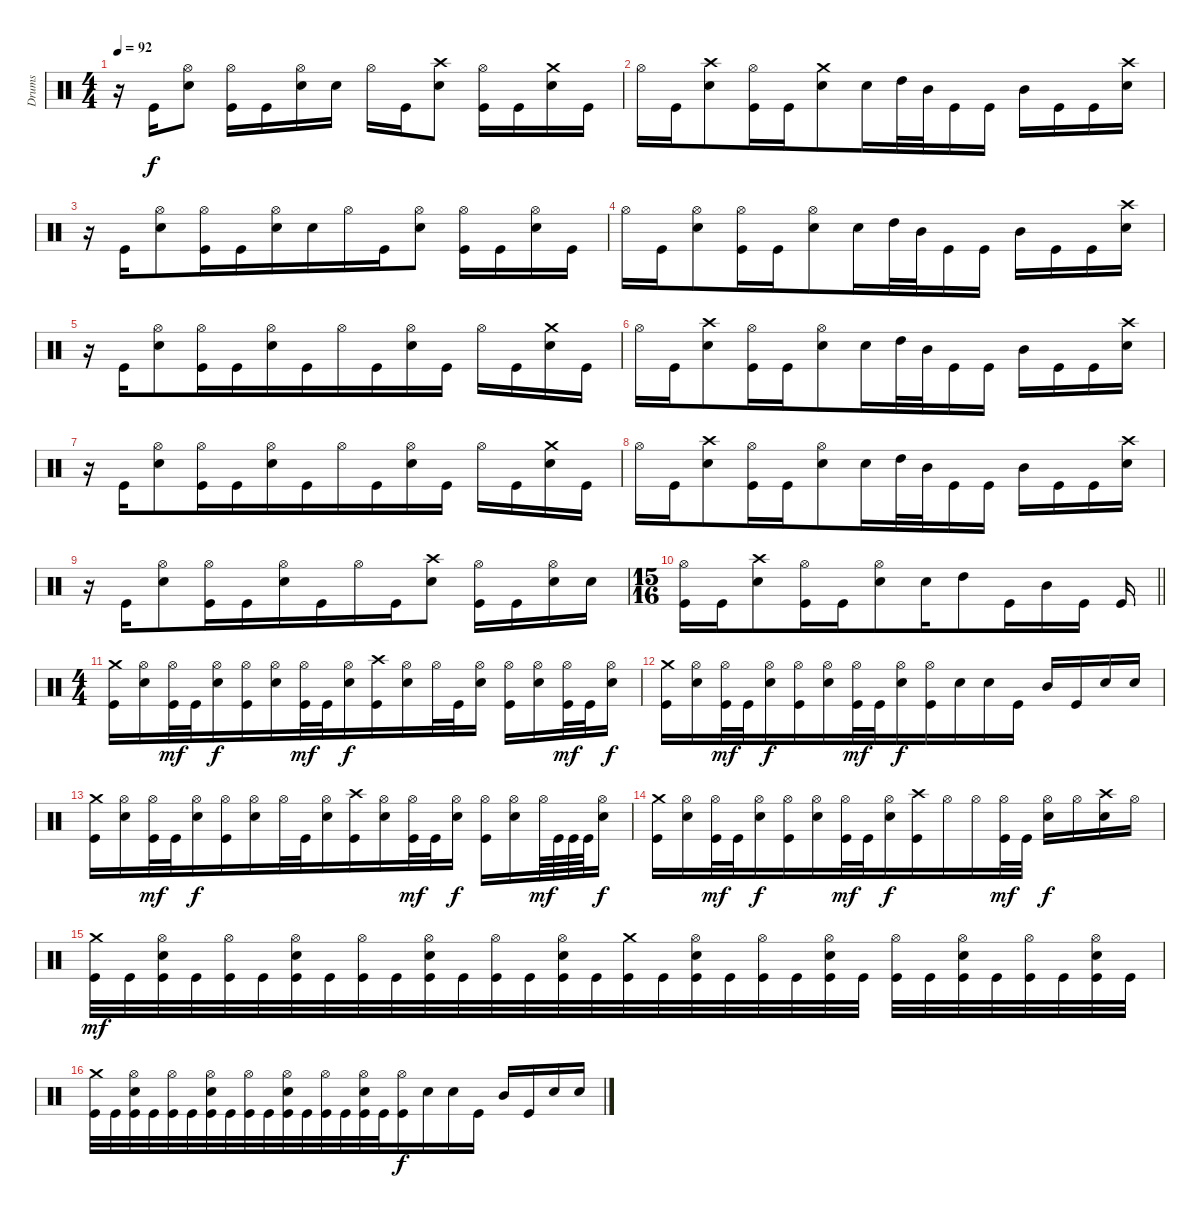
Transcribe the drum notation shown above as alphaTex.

\track ("Drums" "Drums") {instrument percussion}
\staff {score}
\articulation defaults
\ts (4 4)
\tempo 92
\clef neutral
\ks c
r.16{dy f} "Kick (hit)".16 ("Hi-Hat (open)" "Snare (hit) 2").8 ("Hi-Hat (open)" "Kick (hit)").16 "Kick (hit)".16 ("Hi-Hat (open)" "Snare (hit) 2").16 "Snare (hit) 2".16 "Hi-Hat (open)".16 "Kick (hit)".16 ("Crash high (hit)" "Snare (hit) 2").8 ("Hi-Hat (open)" "Kick (hit)").16 "Kick (hit)".16 ("Crash medium (hit)" "Snare (hit) 2").16 "Kick (hit)".16 |
\beaming (8 6 4)
"Hi-Hat (open)".16 "Kick (hit)".16 ("Crash high (hit)" "Snare (hit) 2").8 ("Hi-Hat (open)" "Kick (hit)").16 "Kick (hit)".16 ("Crash medium (hit)" "Snare (hit) 2").8 "Snare (hit) 2".16 "High Tom (hit)".32 "Mid Tom (hit)".32 "Kick (hit)".16 "Kick (hit)".16 "Mid Tom (hit)".16 "Kick (hit)".16 "Kick (hit)".16 ("Crash high (hit)" "Snare (hit) 2").16 |
r.16 "Kick (hit)".16 ("Hi-Hat (open)" "Snare (hit) 2").8 ("Hi-Hat (open)" "Kick (hit)").16 "Kick (hit)".16 ("Hi-Hat (open)" "Snare (hit) 2").16 "Snare (hit) 2".16 "Hi-Hat (open)".16 "Kick (hit)".16 ("Hi-Hat (open)" "Snare (hit) 2").8 ("Hi-Hat (open)" "Kick (hit)").16 "Kick (hit)".16 ("Hi-Hat (open)" "Snare (hit) 2").16 "Kick (hit)".16 |
"Hi-Hat (open)".16 "Kick (hit)".16 ("Hi-Hat (open)" "Snare (hit) 2").8 ("Hi-Hat (open)" "Kick (hit)").16 "Kick (hit)".16 ("Hi-Hat (open)" "Snare (hit) 2").8 "Snare (hit) 2".16 "High Tom (hit)".32 "Mid Tom (hit)".32 "Kick (hit)".16 "Kick (hit)".16 "Mid Tom (hit)".16 "Kick (hit)".16 "Kick (hit)".16 ("Crash high (hit)" "Snare (hit) 2").16 |
r.16 "Kick (hit)".16 ("Hi-Hat (open)" "Snare (hit) 2").8 ("Hi-Hat (open)" "Kick (hit)").16 "Kick (hit)".16 ("Hi-Hat (open)" "Snare (hit) 2").16 "Kick (hit)".16 "Hi-Hat (open)".16 "Kick (hit)".16 ("Hi-Hat (open)" "Snare (hit) 2").16 "Kick (hit)".16 "Hi-Hat (open)".16 "Kick (hit)".16 ("Crash medium (hit)" "Snare (hit) 2").16 "Kick (hit)".16 |
"Hi-Hat (open)".16 "Kick (hit)".16 ("Crash high (hit)" "Snare (hit) 2").8 ("Hi-Hat (open)" "Kick (hit)").16 "Kick (hit)".16 ("Hi-Hat (open)" "Snare (hit) 2").8 "Snare (hit) 2".16 "High Tom (hit)".32 "Mid Tom (hit)".32 "Kick (hit)".16 "Kick (hit)".16 "Mid Tom (hit)".16 "Kick (hit)".16 "Kick (hit)".16 ("Crash high (hit)" "Snare (hit) 2").16 |
r.16 "Kick (hit)".16 ("Hi-Hat (open)" "Snare (hit) 2").8 ("Hi-Hat (open)" "Kick (hit)").16 "Kick (hit)".16 ("Hi-Hat (open)" "Snare (hit) 2").16 "Kick (hit)".16 "Hi-Hat (open)".16 "Kick (hit)".16 ("Hi-Hat (open)" "Snare (hit) 2").16 "Kick (hit)".16 "Hi-Hat (open)".16 "Kick (hit)".16 ("Crash medium (hit)" "Snare (hit) 2").16 "Kick (hit)".16 |
"Hi-Hat (open)".16 "Kick (hit)".16 ("Crash high (hit)" "Snare (hit) 2").8 ("Hi-Hat (open)" "Kick (hit)").16 "Kick (hit)".16 ("Hi-Hat (open)" "Snare (hit) 2").8 "Snare (hit) 2".16 "High Tom (hit)".32 "Mid Tom (hit)".32 "Kick (hit)".16 "Kick (hit)".16 "Mid Tom (hit)".16 "Kick (hit)".16 "Kick (hit)".16 ("Crash high (hit)" "Snare (hit) 2").16 |
r.16 "Kick (hit)".16 ("Hi-Hat (open)" "Snare (hit) 2").8 ("Hi-Hat (open)" "Kick (hit)").16 "Kick (hit)".16 ("Hi-Hat (open)" "Snare (hit) 2").16 "Kick (hit)".16 "Hi-Hat (open)".16 "Kick (hit)".16 ("Crash high (hit)" "Snare (hit) 2").8 ("Hi-Hat (open)" "Kick (hit)").16 "Kick (hit)".16 ("Hi-Hat (open)" "Snare (hit) 2").16 "Snare (hit) 2".16 |
\ts (15 16)
\beaming (8 7)
\barLineRight lightlight
("Hi-Hat (open)" "Kick (hit)").16 "Kick (hit)".16 ("Crash high (hit)" "Snare (hit) 2").8 ("Hi-Hat (open)" "Kick (hit)").16 "Kick (hit)".16 ("Hi-Hat (open)" "Snare (hit) 2").8 "Snare (hit) 2".16 "High Tom (hit)".8 "Kick (hit)".16 "Mid Tom (hit)".16 "Kick (hit)".16 "Kick (hit)".16 |
\ts (4 4)
\beaming (8 6 4)
("Crash medium (hit)" "Kick (hit)").16 ("Hi-Hat (open)" "Snare (hit) 2").16 ("Hi-Hat (open)" "Kick (hit)").32{dy mf} "Kick (hit)".32 ("Hi-Hat (open)" "Snare (hit) 2").16{dy f} ("Hi-Hat (open)" "Kick (hit)").16 ("Hi-Hat (open)" "Snare (hit) 2").16 ("Hi-Hat (open)" "Kick (hit)").32{dy mf} "Kick (hit)".32 ("Hi-Hat (open)" "Snare (hit) 2").16{dy f} ("Crash high (hit)" "Kick (hit)").16 ("Hi-Hat (open)" "Snare (hit) 2").16 "Hi-Hat (open)".32 "Kick (hit)".32 ("Hi-Hat (open)" "Snare (hit) 2").16 ("Hi-Hat (open)" "Kick (hit)").16 ("Hi-Hat (open)" "Snare (hit) 2").16 ("Hi-Hat (open)" "Kick (hit)").32{dy mf} "Kick (hit)".32 ("Hi-Hat (open)" "Snare (hit) 2").16{dy f} |
("Crash medium (hit)" "Kick (hit)").16 ("Hi-Hat (open)" "Snare (hit) 2").16 ("Hi-Hat (open)" "Kick (hit)").32{dy mf} "Kick (hit)".32 ("Hi-Hat (open)" "Snare (hit) 2").16{dy f} ("Hi-Hat (open)" "Kick (hit)").16 ("Hi-Hat (open)" "Snare (hit) 2").16 ("Hi-Hat (open)" "Kick (hit)").32{dy mf} "Kick (hit)".32 ("Hi-Hat (open)" "Snare (hit) 2").16{dy f} ("Hi-Hat (open)" "Kick (hit)").16 "Snare (hit) 2".16 "Snare (hit) 2".16 "Kick (hit)".16 "Mid Tom (hit)".16 "Kick (hit)".16 "Snare (hit) 2".16 "Snare (hit) 2".16 |
("Crash medium (hit)" "Kick (hit)").16 ("Hi-Hat (open)" "Snare (hit) 2").16 ("Hi-Hat (open)" "Kick (hit)").32{dy mf} "Kick (hit)".32 ("Hi-Hat (open)" "Snare (hit) 2").16{dy f} ("Hi-Hat (open)" "Kick (hit)").16 ("Hi-Hat (open)" "Snare (hit) 2").16 "Hi-Hat (open)".32 "Kick (hit)".32 ("Hi-Hat (open)" "Snare (hit) 2").16 ("Crash high (hit)" "Kick (hit)").16 ("Hi-Hat (open)" "Snare (hit) 2").16 ("Hi-Hat (open)" "Kick (hit)").32{dy mf} "Kick (hit)".32 ("Hi-Hat (open)" "Snare (hit) 2").16{dy f} ("Hi-Hat (open)" "Kick (hit)").16 ("Hi-Hat (open)" "Snare (hit) 2").16 "Hi-Hat (open)".64{dy mf} "Kick (hit)".64 "Kick (hit)".64 "Kick (hit)".64 ("Hi-Hat (open)" "Snare (hit) 2").16{dy f} |
("Crash medium (hit)" "Kick (hit)").16 ("Hi-Hat (open)" "Snare (hit) 2").16 ("Hi-Hat (open)" "Kick (hit)").32{dy mf} "Kick (hit)".32 ("Hi-Hat (open)" "Snare (hit) 2").16{dy f} ("Hi-Hat (open)" "Kick (hit)").16 ("Hi-Hat (open)" "Snare (hit) 2").16 ("Hi-Hat (open)" "Kick (hit)").32{dy mf} "Kick (hit)".32 ("Hi-Hat (open)" "Snare (hit) 2").16{dy f} ("Crash high (hit)" "Kick (hit)").16 "Hi-Hat (open)".16 "Hi-Hat (open)".16 ("Hi-Hat (open)" "Kick (hit)").32{dy mf} "Kick (hit)".32 ("Hi-Hat (open)" "Snare (hit) 2").16{dy f} "Hi-Hat (open)".16 ("Crash high (hit)" "Snare (hit) 2").16 "Hi-Hat (open)".16 |
("Crash medium (hit)" "Kick (hit)").32{dy mf} "Kick (hit)".32 ("Hi-Hat (open)" "Snare (hit) 2" "Kick (hit)").32 "Kick (hit)".32 ("Hi-Hat (open)" "Kick (hit)").32 "Kick (hit)".32 ("Hi-Hat (open)" "Snare (hit) 2" "Kick (hit)").32 "Kick (hit)".32 ("Hi-Hat (open)" "Kick (hit)").32 "Kick (hit)".32 ("Hi-Hat (open)" "Snare (hit) 2" "Kick (hit)").32 "Kick (hit)".32 ("Hi-Hat (open)" "Kick (hit)").32 "Kick (hit)".32 ("Hi-Hat (open)" "Snare (hit) 2" "Kick (hit)").32 "Kick (hit)".32 ("Crash medium (hit)" "Kick (hit)").32 "Kick (hit)".32 ("Hi-Hat (open)" "Snare (hit) 2" "Kick (hit)").32 "Kick (hit)".32 ("Hi-Hat (open)" "Kick (hit)").32 "Kick (hit)".32 ("Hi-Hat (open)" "Snare (hit) 2" "Kick (hit)").32 "Kick (hit)".32 ("Hi-Hat (open)" "Kick (hit)").32 "Kick (hit)".32 ("Hi-Hat (open)" "Snare (hit) 2" "Kick (hit)").32 "Kick (hit)".32 ("Hi-Hat (open)" "Kick (hit)").32 "Kick (hit)".32 ("Hi-Hat (open)" "Snare (hit) 2" "Kick (hit)").32 "Kick (hit)".32 |
("Crash medium (hit)" "Kick (hit)").32 "Kick (hit)".32 ("Hi-Hat (open)" "Snare (hit) 2" "Kick (hit)").32 "Kick (hit)".32 ("Hi-Hat (open)" "Kick (hit)").32 "Kick (hit)".32 ("Hi-Hat (open)" "Snare (hit) 2" "Kick (hit)").32 "Kick (hit)".32 ("Hi-Hat (open)" "Kick (hit)").32 "Kick (hit)".32 ("Hi-Hat (open)" "Snare (hit) 2" "Kick (hit)").32 "Kick (hit)".32 ("Hi-Hat (open)" "Kick (hit)").32 "Kick (hit)".32 ("Hi-Hat (open)" "Snare (hit) 2" "Kick (hit)").32 "Kick (hit)".32 ("Hi-Hat (open)" "Kick (hit)").16{dy f} "Snare (hit) 2".16 "Snare (hit) 2".16 "Kick (hit)".16 "Mid Tom (hit)".16 "Kick (hit)".16 "Snare (hit) 2".16 "Snare (hit) 2".16
